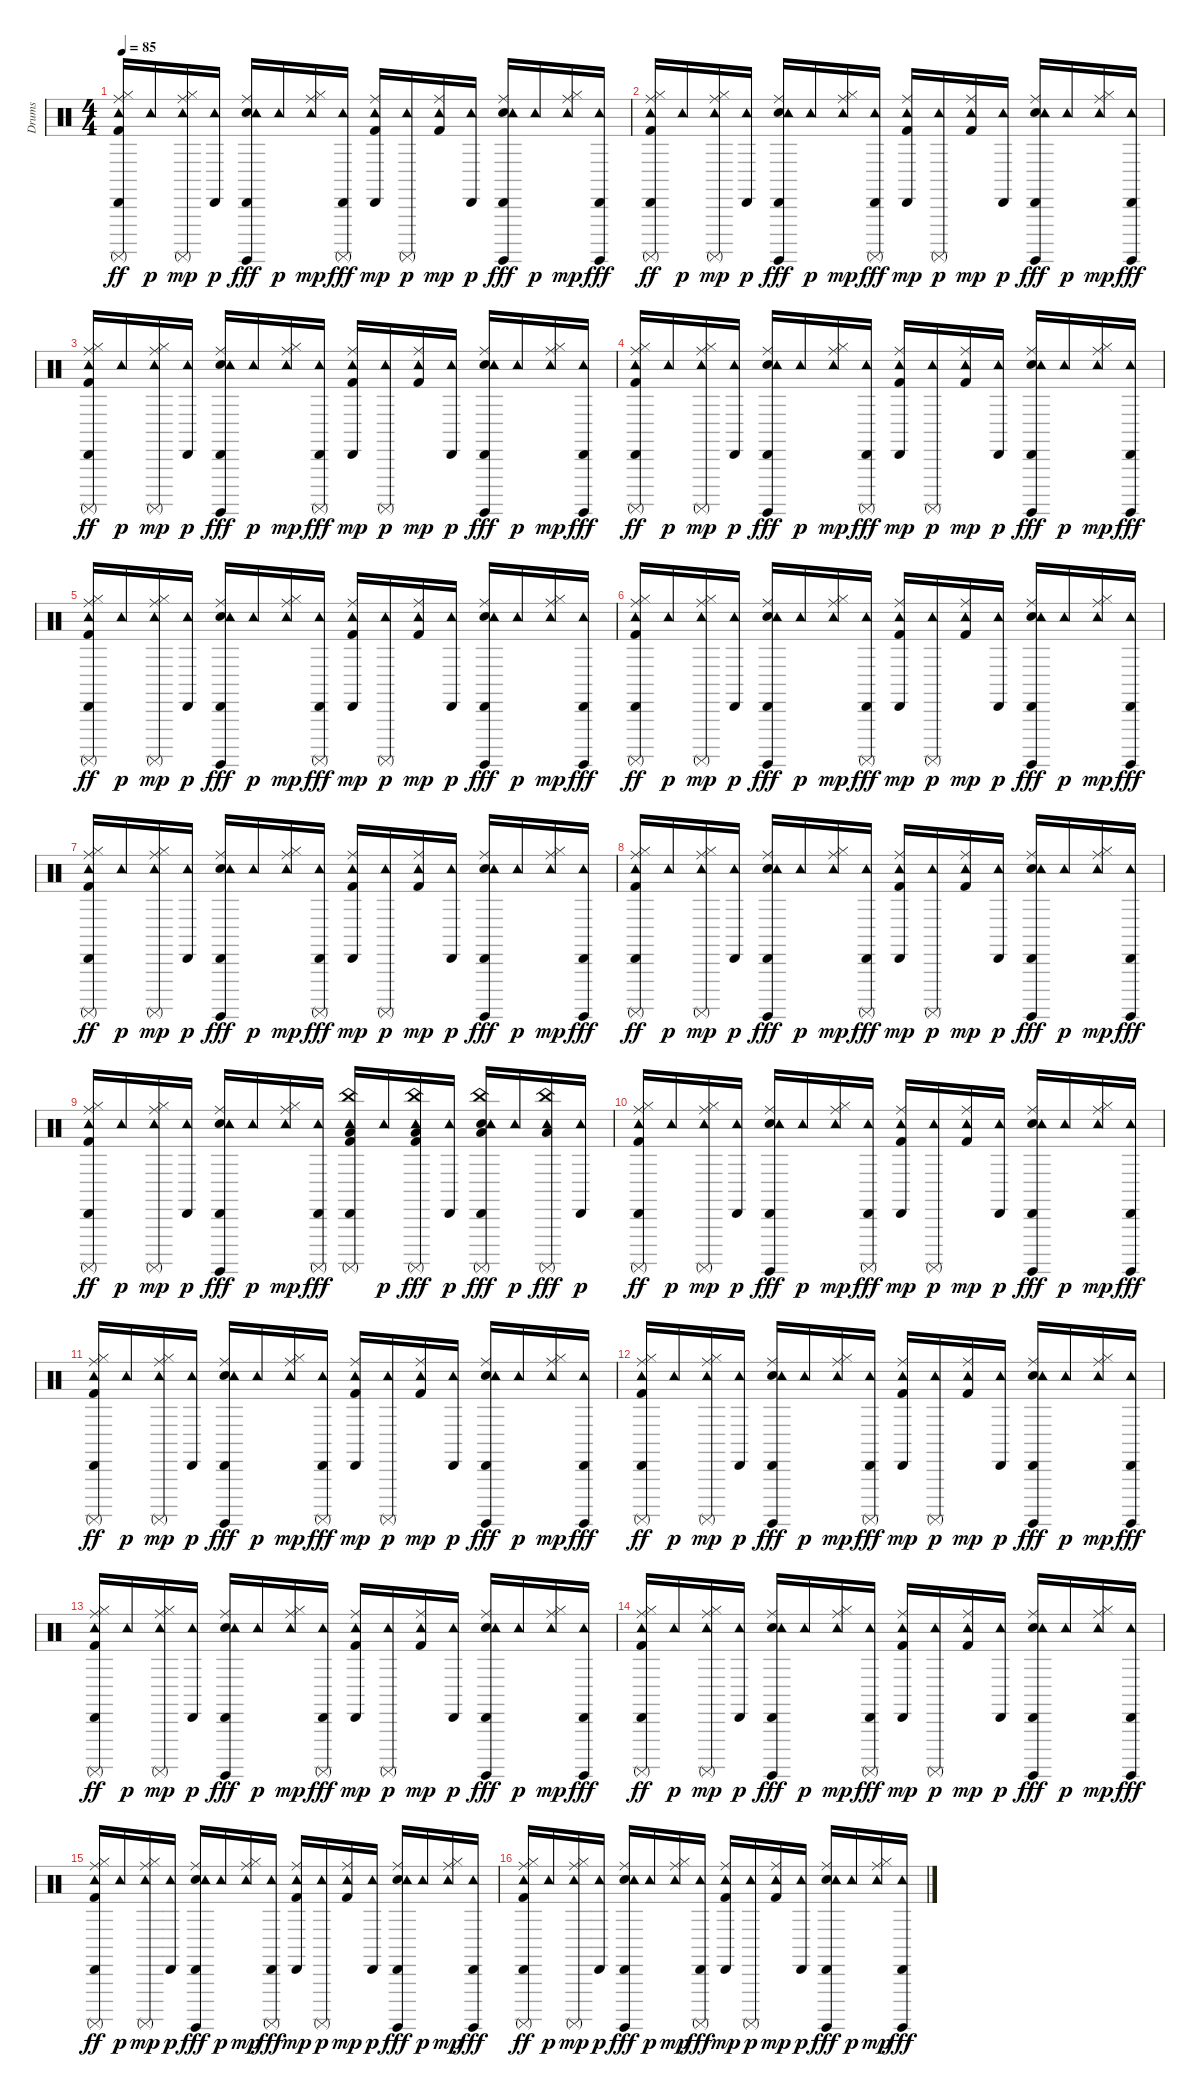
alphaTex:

\track ("Drums" "Drums") {instrument percussion}
\staff {score}
\articulation defaults
\ts (4 4)
\tempo 85
\clef neutral
\ks c
("Kick (hit) 2" "Hi-Hat (closed)" "Ride (middle)" "Tambourine (hit)" "Cabasa (hit)" "Surdo (mute)").16{dy ff} "Tambourine (hit)".16{dy p} ("Hi-Hat (closed)" "Ride (middle)" "Tambourine (hit)" "Surdo (mute)").16{dy mp} ("Cabasa (hit)" "Tambourine (hit)").16{dy p} ("Snare (hit) 2" "Ride (middle)" "Tambourine (hit)" "Cabasa (hit)" "Surdo (hit)").16{dy fff} "Tambourine (hit)".16{dy p} ("Hi-Hat (closed)" "Ride (middle)" "Tambourine (hit)").16{dy mp} ("Surdo (mute)" "Cabasa (hit)" "Tambourine (hit)").16{dy fff} ("Kick (hit) 2" "Ride (middle)" "Tambourine (hit)" "Cabasa (hit)").16{dy mp} ("Tambourine (hit)" "Surdo (mute)").16{dy p} ("Kick (hit) 2" "Ride (middle)" "Tambourine (hit)").16{dy mp} ("Cabasa (hit)" "Tambourine (hit)").16{dy p} ("Snare (hit) 2" "Ride (middle)" "Tambourine (hit)" "Cabasa (hit)" "Surdo (hit)").16{dy fff} "Tambourine (hit)".16{dy p} ("Hi-Hat (closed)" "Ride (middle)" "Tambourine (hit)").16{dy mp} ("Surdo (hit)" "Cabasa (hit)" "Tambourine (hit)").16{dy fff} |
("Kick (hit) 2" "Hi-Hat (closed)" "Ride (middle)" "Tambourine (hit)" "Cabasa (hit)" "Surdo (mute)").16{dy ff} "Tambourine (hit)".16{dy p} ("Hi-Hat (closed)" "Ride (middle)" "Tambourine (hit)" "Surdo (mute)").16{dy mp} ("Cabasa (hit)" "Tambourine (hit)").16{dy p} ("Snare (hit) 2" "Ride (middle)" "Tambourine (hit)" "Cabasa (hit)" "Surdo (hit)").16{dy fff} "Tambourine (hit)".16{dy p} ("Hi-Hat (closed)" "Ride (middle)" "Tambourine (hit)").16{dy mp} ("Surdo (mute)" "Cabasa (hit)" "Tambourine (hit)").16{dy fff} ("Kick (hit) 2" "Ride (middle)" "Tambourine (hit)" "Cabasa (hit)").16{dy mp} ("Tambourine (hit)" "Surdo (mute)").16{dy p} ("Kick (hit) 2" "Ride (middle)" "Tambourine (hit)").16{dy mp} ("Cabasa (hit)" "Tambourine (hit)").16{dy p} ("Snare (hit) 2" "Ride (middle)" "Tambourine (hit)" "Cabasa (hit)" "Surdo (hit)").16{dy fff} "Tambourine (hit)".16{dy p} ("Hi-Hat (closed)" "Ride (middle)" "Tambourine (hit)").16{dy mp} ("Surdo (hit)" "Cabasa (hit)" "Tambourine (hit)").16{dy fff} |
("Kick (hit) 2" "Hi-Hat (closed)" "Ride (middle)" "Tambourine (hit)" "Cabasa (hit)" "Surdo (mute)").16{dy ff} "Tambourine (hit)".16{dy p} ("Hi-Hat (closed)" "Ride (middle)" "Tambourine (hit)" "Surdo (mute)").16{dy mp} ("Cabasa (hit)" "Tambourine (hit)").16{dy p} ("Snare (hit) 2" "Ride (middle)" "Tambourine (hit)" "Cabasa (hit)" "Surdo (hit)").16{dy fff} "Tambourine (hit)".16{dy p} ("Hi-Hat (closed)" "Ride (middle)" "Tambourine (hit)").16{dy mp} ("Surdo (mute)" "Cabasa (hit)" "Tambourine (hit)").16{dy fff} ("Kick (hit) 2" "Ride (middle)" "Tambourine (hit)" "Cabasa (hit)").16{dy mp} ("Tambourine (hit)" "Surdo (mute)").16{dy p} ("Kick (hit) 2" "Ride (middle)" "Tambourine (hit)").16{dy mp} ("Cabasa (hit)" "Tambourine (hit)").16{dy p} ("Snare (hit) 2" "Ride (middle)" "Tambourine (hit)" "Cabasa (hit)" "Surdo (hit)").16{dy fff} "Tambourine (hit)".16{dy p} ("Hi-Hat (closed)" "Ride (middle)" "Tambourine (hit)").16{dy mp} ("Surdo (hit)" "Cabasa (hit)" "Tambourine (hit)").16{dy fff} |
("Kick (hit) 2" "Hi-Hat (closed)" "Ride (middle)" "Tambourine (hit)" "Cabasa (hit)" "Surdo (mute)").16{dy ff} "Tambourine (hit)".16{dy p} ("Hi-Hat (closed)" "Ride (middle)" "Tambourine (hit)" "Surdo (mute)").16{dy mp} ("Cabasa (hit)" "Tambourine (hit)").16{dy p} ("Snare (hit) 2" "Ride (middle)" "Tambourine (hit)" "Cabasa (hit)" "Surdo (hit)").16{dy fff} "Tambourine (hit)".16{dy p} ("Hi-Hat (closed)" "Ride (middle)" "Tambourine (hit)").16{dy mp} ("Surdo (mute)" "Cabasa (hit)" "Tambourine (hit)").16{dy fff} ("Kick (hit) 2" "Ride (middle)" "Tambourine (hit)" "Cabasa (hit)").16{dy mp} ("Tambourine (hit)" "Surdo (mute)").16{dy p} ("Kick (hit) 2" "Ride (middle)" "Tambourine (hit)").16{dy mp} ("Cabasa (hit)" "Tambourine (hit)").16{dy p} ("Snare (hit) 2" "Ride (middle)" "Tambourine (hit)" "Cabasa (hit)" "Surdo (hit)").16{dy fff} "Tambourine (hit)".16{dy p} ("Hi-Hat (closed)" "Ride (middle)" "Tambourine (hit)").16{dy mp} ("Surdo (hit)" "Cabasa (hit)" "Tambourine (hit)").16{dy fff} |
("Kick (hit) 2" "Hi-Hat (closed)" "Ride (middle)" "Tambourine (hit)" "Cabasa (hit)" "Surdo (mute)").16{dy ff} "Tambourine (hit)".16{dy p} ("Hi-Hat (closed)" "Ride (middle)" "Tambourine (hit)" "Surdo (mute)").16{dy mp} ("Cabasa (hit)" "Tambourine (hit)").16{dy p} ("Snare (hit) 2" "Ride (middle)" "Tambourine (hit)" "Cabasa (hit)" "Surdo (hit)").16{dy fff} "Tambourine (hit)".16{dy p} ("Hi-Hat (closed)" "Ride (middle)" "Tambourine (hit)").16{dy mp} ("Surdo (mute)" "Cabasa (hit)" "Tambourine (hit)").16{dy fff} ("Kick (hit) 2" "Ride (middle)" "Tambourine (hit)" "Cabasa (hit)").16{dy mp} ("Tambourine (hit)" "Surdo (mute)").16{dy p} ("Kick (hit) 2" "Ride (middle)" "Tambourine (hit)").16{dy mp} ("Cabasa (hit)" "Tambourine (hit)").16{dy p} ("Snare (hit) 2" "Ride (middle)" "Tambourine (hit)" "Cabasa (hit)" "Surdo (hit)").16{dy fff} "Tambourine (hit)".16{dy p} ("Hi-Hat (closed)" "Ride (middle)" "Tambourine (hit)").16{dy mp} ("Surdo (hit)" "Cabasa (hit)" "Tambourine (hit)").16{dy fff} |
("Kick (hit) 2" "Hi-Hat (closed)" "Ride (middle)" "Tambourine (hit)" "Cabasa (hit)" "Surdo (mute)").16{dy ff} "Tambourine (hit)".16{dy p} ("Hi-Hat (closed)" "Ride (middle)" "Tambourine (hit)" "Surdo (mute)").16{dy mp} ("Cabasa (hit)" "Tambourine (hit)").16{dy p} ("Snare (hit) 2" "Ride (middle)" "Tambourine (hit)" "Cabasa (hit)" "Surdo (hit)").16{dy fff} "Tambourine (hit)".16{dy p} ("Hi-Hat (closed)" "Ride (middle)" "Tambourine (hit)").16{dy mp} ("Surdo (mute)" "Cabasa (hit)" "Tambourine (hit)").16{dy fff} ("Kick (hit) 2" "Ride (middle)" "Tambourine (hit)" "Cabasa (hit)").16{dy mp} ("Tambourine (hit)" "Surdo (mute)").16{dy p} ("Kick (hit) 2" "Ride (middle)" "Tambourine (hit)").16{dy mp} ("Cabasa (hit)" "Tambourine (hit)").16{dy p} ("Snare (hit) 2" "Ride (middle)" "Tambourine (hit)" "Cabasa (hit)" "Surdo (hit)").16{dy fff} "Tambourine (hit)".16{dy p} ("Hi-Hat (closed)" "Ride (middle)" "Tambourine (hit)").16{dy mp} ("Surdo (hit)" "Cabasa (hit)" "Tambourine (hit)").16{dy fff} |
("Kick (hit) 2" "Hi-Hat (closed)" "Ride (middle)" "Tambourine (hit)" "Cabasa (hit)" "Surdo (mute)").16{dy ff} "Tambourine (hit)".16{dy p} ("Hi-Hat (closed)" "Ride (middle)" "Tambourine (hit)" "Surdo (mute)").16{dy mp} ("Cabasa (hit)" "Tambourine (hit)").16{dy p} ("Snare (hit) 2" "Ride (middle)" "Tambourine (hit)" "Cabasa (hit)" "Surdo (hit)").16{dy fff} "Tambourine (hit)".16{dy p} ("Hi-Hat (closed)" "Ride (middle)" "Tambourine (hit)").16{dy mp} ("Surdo (mute)" "Cabasa (hit)" "Tambourine (hit)").16{dy fff} ("Kick (hit) 2" "Ride (middle)" "Tambourine (hit)" "Cabasa (hit)").16{dy mp} ("Tambourine (hit)" "Surdo (mute)").16{dy p} ("Kick (hit) 2" "Ride (middle)" "Tambourine (hit)").16{dy mp} ("Cabasa (hit)" "Tambourine (hit)").16{dy p} ("Snare (hit) 2" "Ride (middle)" "Tambourine (hit)" "Cabasa (hit)" "Surdo (hit)").16{dy fff} "Tambourine (hit)".16{dy p} ("Hi-Hat (closed)" "Ride (middle)" "Tambourine (hit)").16{dy mp} ("Surdo (hit)" "Cabasa (hit)" "Tambourine (hit)").16{dy fff} |
("Kick (hit) 2" "Hi-Hat (closed)" "Ride (middle)" "Tambourine (hit)" "Cabasa (hit)" "Surdo (mute)").16{dy ff} "Tambourine (hit)".16{dy p} ("Hi-Hat (closed)" "Ride (middle)" "Tambourine (hit)" "Surdo (mute)").16{dy mp} ("Cabasa (hit)" "Tambourine (hit)").16{dy p} ("Snare (hit) 2" "Ride (middle)" "Tambourine (hit)" "Cabasa (hit)" "Surdo (hit)").16{dy fff} "Tambourine (hit)".16{dy p} ("Hi-Hat (closed)" "Ride (middle)" "Tambourine (hit)").16{dy mp} ("Surdo (mute)" "Cabasa (hit)" "Tambourine (hit)").16{dy fff} ("Kick (hit) 2" "Ride (middle)" "Tambourine (hit)" "Cabasa (hit)").16{dy mp} ("Tambourine (hit)" "Surdo (mute)").16{dy p} ("Kick (hit) 2" "Ride (middle)" "Tambourine (hit)").16{dy mp} ("Cabasa (hit)" "Tambourine (hit)").16{dy p} ("Snare (hit) 2" "Ride (middle)" "Tambourine (hit)" "Cabasa (hit)" "Surdo (hit)").16{dy fff} "Tambourine (hit)".16{dy p} ("Hi-Hat (closed)" "Ride (middle)" "Tambourine (hit)").16{dy mp} ("Surdo (hit)" "Cabasa (hit)" "Tambourine (hit)").16{dy fff} |
("Kick (hit) 2" "Hi-Hat (closed)" "Ride (middle)" "Tambourine (hit)" "Cabasa (hit)" "Surdo (mute)").16{dy ff} "Tambourine (hit)".16{dy p} ("Hi-Hat (closed)" "Ride (middle)" "Tambourine (hit)" "Surdo (mute)").16{dy mp} ("Cabasa (hit)" "Tambourine (hit)").16{dy p} ("Snare (hit) 2" "Ride (middle)" "Tambourine (hit)" "Cabasa (hit)" "Surdo (hit)").16{dy fff} "Tambourine (hit)".16{dy p} ("Hi-Hat (closed)" "Ride (middle)" "Tambourine (hit)").16{dy mp} ("Surdo (mute)" "Cabasa (hit)" "Tambourine (hit)").16{dy fff} ("Kick (hit) 2" "Low Floor Tom (hit)" "China (hit)" "Tambourine (hit)" "Cabasa (hit)" "Surdo (mute)").16 "Tambourine (hit)".16{dy p} ("Kick (hit) 2" "Low Floor Tom (hit)" "China (hit)" "Tambourine (hit)" "Surdo (mute)").16{dy fff} ("Cabasa (hit)" "Tambourine (hit)").16{dy p} ("Snare (hit) 2" "Low Floor Tom (hit)" "China (hit)" "Tambourine (hit)" "Cabasa (hit)" "Surdo (mute)").16{dy fff} "Tambourine (hit)".16{dy p} ("Low Floor Tom (hit)" "China (hit)" "Tambourine (hit)" "Surdo (mute)").16{dy fff} ("Cabasa (hit)" "Tambourine (hit)").16{dy p} |
("Kick (hit) 2" "Hi-Hat (closed)" "Ride (middle)" "Tambourine (hit)" "Cabasa (hit)" "Surdo (mute)").16{dy ff} "Tambourine (hit)".16{dy p} ("Hi-Hat (closed)" "Ride (middle)" "Tambourine (hit)" "Surdo (mute)").16{dy mp} ("Cabasa (hit)" "Tambourine (hit)").16{dy p} ("Snare (hit) 2" "Ride (middle)" "Tambourine (hit)" "Cabasa (hit)" "Surdo (hit)").16{dy fff} "Tambourine (hit)".16{dy p} ("Hi-Hat (closed)" "Ride (middle)" "Tambourine (hit)").16{dy mp} ("Surdo (mute)" "Cabasa (hit)" "Tambourine (hit)").16{dy fff} ("Kick (hit) 2" "Ride (middle)" "Tambourine (hit)" "Cabasa (hit)").16{dy mp} ("Tambourine (hit)" "Surdo (mute)").16{dy p} ("Kick (hit) 2" "Ride (middle)" "Tambourine (hit)").16{dy mp} ("Cabasa (hit)" "Tambourine (hit)").16{dy p} ("Snare (hit) 2" "Ride (middle)" "Tambourine (hit)" "Cabasa (hit)" "Surdo (hit)").16{dy fff} "Tambourine (hit)".16{dy p} ("Hi-Hat (closed)" "Ride (middle)" "Tambourine (hit)").16{dy mp} ("Surdo (hit)" "Cabasa (hit)" "Tambourine (hit)").16{dy fff} |
("Kick (hit) 2" "Hi-Hat (closed)" "Ride (middle)" "Tambourine (hit)" "Cabasa (hit)" "Surdo (mute)").16{dy ff} "Tambourine (hit)".16{dy p} ("Hi-Hat (closed)" "Ride (middle)" "Tambourine (hit)" "Surdo (mute)").16{dy mp} ("Cabasa (hit)" "Tambourine (hit)").16{dy p} ("Snare (hit) 2" "Ride (middle)" "Tambourine (hit)" "Cabasa (hit)" "Surdo (hit)").16{dy fff} "Tambourine (hit)".16{dy p} ("Hi-Hat (closed)" "Ride (middle)" "Tambourine (hit)").16{dy mp} ("Surdo (mute)" "Cabasa (hit)" "Tambourine (hit)").16{dy fff} ("Kick (hit) 2" "Ride (middle)" "Tambourine (hit)" "Cabasa (hit)").16{dy mp} ("Tambourine (hit)" "Surdo (mute)").16{dy p} ("Kick (hit) 2" "Ride (middle)" "Tambourine (hit)").16{dy mp} ("Cabasa (hit)" "Tambourine (hit)").16{dy p} ("Snare (hit) 2" "Ride (middle)" "Tambourine (hit)" "Cabasa (hit)" "Surdo (hit)").16{dy fff} "Tambourine (hit)".16{dy p} ("Hi-Hat (closed)" "Ride (middle)" "Tambourine (hit)").16{dy mp} ("Surdo (hit)" "Cabasa (hit)" "Tambourine (hit)").16{dy fff} |
("Kick (hit) 2" "Hi-Hat (closed)" "Ride (middle)" "Tambourine (hit)" "Cabasa (hit)" "Surdo (mute)").16{dy ff} "Tambourine (hit)".16{dy p} ("Hi-Hat (closed)" "Ride (middle)" "Tambourine (hit)" "Surdo (mute)").16{dy mp} ("Cabasa (hit)" "Tambourine (hit)").16{dy p} ("Snare (hit) 2" "Ride (middle)" "Tambourine (hit)" "Cabasa (hit)" "Surdo (hit)").16{dy fff} "Tambourine (hit)".16{dy p} ("Hi-Hat (closed)" "Ride (middle)" "Tambourine (hit)").16{dy mp} ("Surdo (mute)" "Cabasa (hit)" "Tambourine (hit)").16{dy fff} ("Kick (hit) 2" "Ride (middle)" "Tambourine (hit)" "Cabasa (hit)").16{dy mp} ("Tambourine (hit)" "Surdo (mute)").16{dy p} ("Kick (hit) 2" "Ride (middle)" "Tambourine (hit)").16{dy mp} ("Cabasa (hit)" "Tambourine (hit)").16{dy p} ("Snare (hit) 2" "Ride (middle)" "Tambourine (hit)" "Cabasa (hit)" "Surdo (hit)").16{dy fff} "Tambourine (hit)".16{dy p} ("Hi-Hat (closed)" "Ride (middle)" "Tambourine (hit)").16{dy mp} ("Surdo (hit)" "Cabasa (hit)" "Tambourine (hit)").16{dy fff} |
("Kick (hit) 2" "Hi-Hat (closed)" "Ride (middle)" "Tambourine (hit)" "Cabasa (hit)" "Surdo (mute)").16{dy ff} "Tambourine (hit)".16{dy p} ("Hi-Hat (closed)" "Ride (middle)" "Tambourine (hit)" "Surdo (mute)").16{dy mp} ("Cabasa (hit)" "Tambourine (hit)").16{dy p} ("Snare (hit) 2" "Ride (middle)" "Tambourine (hit)" "Cabasa (hit)" "Surdo (hit)").16{dy fff} "Tambourine (hit)".16{dy p} ("Hi-Hat (closed)" "Ride (middle)" "Tambourine (hit)").16{dy mp} ("Surdo (mute)" "Cabasa (hit)" "Tambourine (hit)").16{dy fff} ("Kick (hit) 2" "Ride (middle)" "Tambourine (hit)" "Cabasa (hit)").16{dy mp} ("Tambourine (hit)" "Surdo (mute)").16{dy p} ("Kick (hit) 2" "Ride (middle)" "Tambourine (hit)").16{dy mp} ("Cabasa (hit)" "Tambourine (hit)").16{dy p} ("Snare (hit) 2" "Ride (middle)" "Tambourine (hit)" "Cabasa (hit)" "Surdo (hit)").16{dy fff} "Tambourine (hit)".16{dy p} ("Hi-Hat (closed)" "Ride (middle)" "Tambourine (hit)").16{dy mp} ("Surdo (hit)" "Cabasa (hit)" "Tambourine (hit)").16{dy fff} |
("Kick (hit) 2" "Hi-Hat (closed)" "Ride (middle)" "Tambourine (hit)" "Cabasa (hit)" "Surdo (mute)").16{dy ff} "Tambourine (hit)".16{dy p} ("Hi-Hat (closed)" "Ride (middle)" "Tambourine (hit)" "Surdo (mute)").16{dy mp} ("Cabasa (hit)" "Tambourine (hit)").16{dy p} ("Snare (hit) 2" "Ride (middle)" "Tambourine (hit)" "Cabasa (hit)" "Surdo (hit)").16{dy fff} "Tambourine (hit)".16{dy p} ("Hi-Hat (closed)" "Ride (middle)" "Tambourine (hit)").16{dy mp} ("Surdo (mute)" "Cabasa (hit)" "Tambourine (hit)").16{dy fff} ("Kick (hit) 2" "Ride (middle)" "Tambourine (hit)" "Cabasa (hit)").16{dy mp} ("Tambourine (hit)" "Surdo (mute)").16{dy p} ("Kick (hit) 2" "Ride (middle)" "Tambourine (hit)").16{dy mp} ("Cabasa (hit)" "Tambourine (hit)").16{dy p} ("Snare (hit) 2" "Ride (middle)" "Tambourine (hit)" "Cabasa (hit)" "Surdo (hit)").16{dy fff} "Tambourine (hit)".16{dy p} ("Hi-Hat (closed)" "Ride (middle)" "Tambourine (hit)").16{dy mp} ("Surdo (hit)" "Cabasa (hit)" "Tambourine (hit)").16{dy fff} |
("Kick (hit) 2" "Hi-Hat (closed)" "Ride (middle)" "Tambourine (hit)" "Cabasa (hit)" "Surdo (mute)").16{dy ff} "Tambourine (hit)".16{dy p} ("Hi-Hat (closed)" "Ride (middle)" "Tambourine (hit)" "Surdo (mute)").16{dy mp} ("Cabasa (hit)" "Tambourine (hit)").16{dy p} ("Snare (hit) 2" "Ride (middle)" "Tambourine (hit)" "Cabasa (hit)" "Surdo (hit)").16{dy fff} "Tambourine (hit)".16{dy p} ("Hi-Hat (closed)" "Ride (middle)" "Tambourine (hit)").16{dy mp} ("Surdo (mute)" "Cabasa (hit)" "Tambourine (hit)").16{dy fff} ("Kick (hit) 2" "Ride (middle)" "Tambourine (hit)" "Cabasa (hit)").16{dy mp} ("Tambourine (hit)" "Surdo (mute)").16{dy p} ("Kick (hit) 2" "Ride (middle)" "Tambourine (hit)").16{dy mp} ("Cabasa (hit)" "Tambourine (hit)").16{dy p} ("Snare (hit) 2" "Ride (middle)" "Tambourine (hit)" "Cabasa (hit)" "Surdo (hit)").16{dy fff} "Tambourine (hit)".16{dy p} ("Hi-Hat (closed)" "Ride (middle)" "Tambourine (hit)").16{dy mp} ("Surdo (hit)" "Cabasa (hit)" "Tambourine (hit)").16{dy fff} |
("Kick (hit) 2" "Hi-Hat (closed)" "Ride (middle)" "Tambourine (hit)" "Cabasa (hit)" "Surdo (mute)").16{dy ff} "Tambourine (hit)".16{dy p} ("Hi-Hat (closed)" "Ride (middle)" "Tambourine (hit)" "Surdo (mute)").16{dy mp} ("Cabasa (hit)" "Tambourine (hit)").16{dy p} ("Snare (hit) 2" "Ride (middle)" "Tambourine (hit)" "Cabasa (hit)" "Surdo (hit)").16{dy fff} "Tambourine (hit)".16{dy p} ("Hi-Hat (closed)" "Ride (middle)" "Tambourine (hit)").16{dy mp} ("Surdo (mute)" "Cabasa (hit)" "Tambourine (hit)").16{dy fff} ("Kick (hit) 2" "Ride (middle)" "Tambourine (hit)" "Cabasa (hit)").16{dy mp} ("Tambourine (hit)" "Surdo (mute)").16{dy p} ("Kick (hit) 2" "Ride (middle)" "Tambourine (hit)").16{dy mp} ("Cabasa (hit)" "Tambourine (hit)").16{dy p} ("Snare (hit) 2" "Ride (middle)" "Tambourine (hit)" "Cabasa (hit)" "Surdo (hit)").16{dy fff} "Tambourine (hit)".16{dy p} ("Hi-Hat (closed)" "Ride (middle)" "Tambourine (hit)").16{dy mp} ("Surdo (hit)" "Cabasa (hit)" "Tambourine (hit)").16{dy fff}
